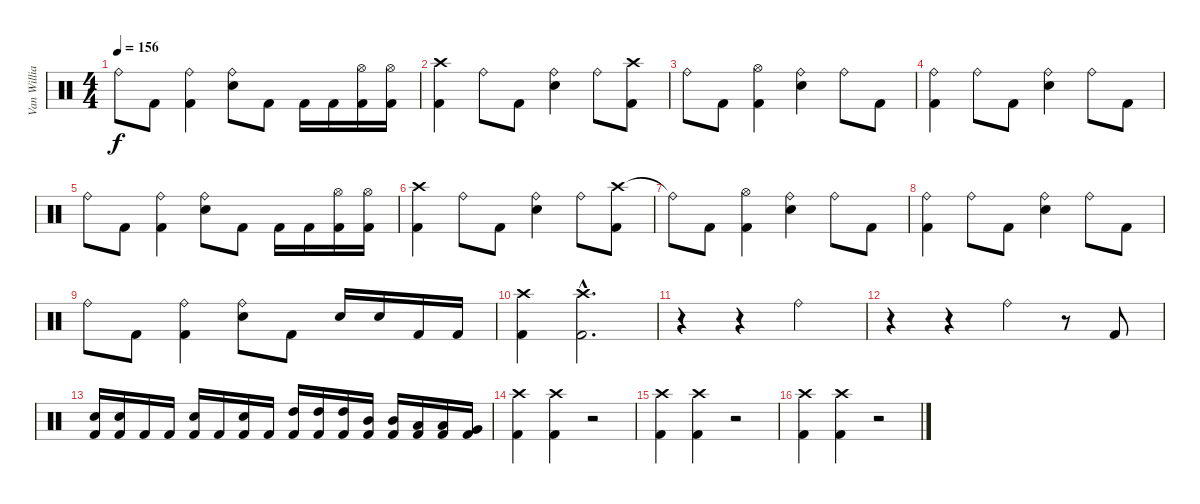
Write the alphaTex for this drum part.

\track ("Van Williams" "Van Willia") {instrument percussion}
\staff {score}
\articulation defaults
\ts (4 4)
\tempo 156
\clef neutral
\ks c "Ride (bell)".8{dy f} "Kick (hit) 2".8
("Ride (bell)" "Kick (hit) 2").4 ("Ride (bell)" "Electric Snare (hit)").8 "Kick (hit) 2".8 "Kick (hit) 2".16 "Kick (hit) 2".16 ("Hi-Hat (open)" "Kick (hit) 2").16 ("Hi-Hat (open)" "Kick (hit) 2").16 |
("Crash high (hit)" "Kick (hit) 2").4 "Ride (bell)".8 "Kick (hit) 2".8 ("Ride (bell)" "Electric Snare (hit)").4 "Ride (bell)".8 ("Crash high (hit)" "Kick (hit) 2").8 |
"Ride (bell)".8 "Kick (hit) 2".8 ("Hi-Hat (open)" "Kick (hit) 2").4 ("Ride (bell)" "Electric Snare (hit)").4 "Ride (bell)".8 "Kick (hit) 2".8 |
("Ride (bell)" "Kick (hit) 2").4 "Ride (bell)".8 "Kick (hit) 2".8 ("Ride (bell)" "Electric Snare (hit)").4 "Ride (bell)".8 "Kick (hit) 2".8 |
"Ride (bell)".8 "Kick (hit) 2".8 ("Ride (bell)" "Kick (hit) 2").4 ("Ride (bell)" "Electric Snare (hit)").8 "Kick (hit) 2".8 "Kick (hit) 2".16 "Kick (hit) 2".16 ("Hi-Hat (open)" "Kick (hit) 2").16 ("Hi-Hat (open)" "Kick (hit) 2").16 |
("Crash high (hit)" "Kick (hit) 2").4 "Ride (bell)".8 "Kick (hit) 2".8 ("Ride (bell)" "Electric Snare (hit)").4 "Ride (bell)".8 ("Crash high (hit)" "Kick (hit) 2").8 |
"Ride (bell)"{t}.8 "Kick (hit) 2".8 ("Hi-Hat (open)" "Kick (hit) 2").4 ("Ride (bell)" "Electric Snare (hit)").4 "Ride (bell)".8 "Kick (hit) 2".8 |
("Ride (bell)" "Kick (hit) 2").4 "Ride (bell)".8 "Kick (hit) 2".8 ("Ride (bell)" "Electric Snare (hit)").4 "Ride (bell)".8 "Kick (hit) 2".8 |
"Ride (bell)".8 "Kick (hit) 2".8 ("Ride (bell)" "Kick (hit) 2").4 ("Ride (bell)" "Electric Snare (hit)").8 "Kick (hit) 2".8 "Electric Snare (hit)".16 "Electric Snare (hit)".16 "Kick (hit) 2".16 "Kick (hit) 2".16 |
\section ("" "")
("Crash high (hit)" "Kick (hit) 2").4 ("Crash high (hit)"{hac} "Kick (hit) 2"{hac}).2{d} |
r.4 r.4 "Ride (bell)".2 |
r.4 r.4 "Ride (bell)".4 r.8 "Kick (hit) 2".8 |
("Electric Snare (hit)" "Kick (hit) 2").16 ("Electric Snare (hit)" "Kick (hit) 2").16 "Kick (hit) 2".16 "Kick (hit) 2".16 ("Electric Snare (hit)" "Kick (hit) 2").16 "Kick (hit) 2".16 ("Electric Snare (hit)" "Kick (hit) 2").16 "Kick (hit) 2".16 ("High Tom (hit)" "Kick (hit) 2").16 ("High Tom (hit)" "Kick (hit) 2").16 ("High Tom (hit)" "Kick (hit) 2").16 ("Mid Tom (hit)" "Kick (hit) 2").16 ("Mid Tom (hit)" "Kick (hit) 2").16 ("Low Tom (hit)" "Kick (hit) 2").16 ("Low Tom (hit)" "Kick (hit) 2").16 ("Very Low Tom (hit)" "Kick (hit) 2").16 |
("Crash high (hit)" "Kick (hit) 2").4 ("Crash high (hit)" "Kick (hit) 2").4 r.2 |
("Crash high (hit)" "Kick (hit) 2").4 ("Crash high (hit)" "Kick (hit) 2").4 r.2 |
("Crash high (hit)" "Kick (hit) 2").4 ("Crash high (hit)" "Kick (hit) 2").4 r.2
